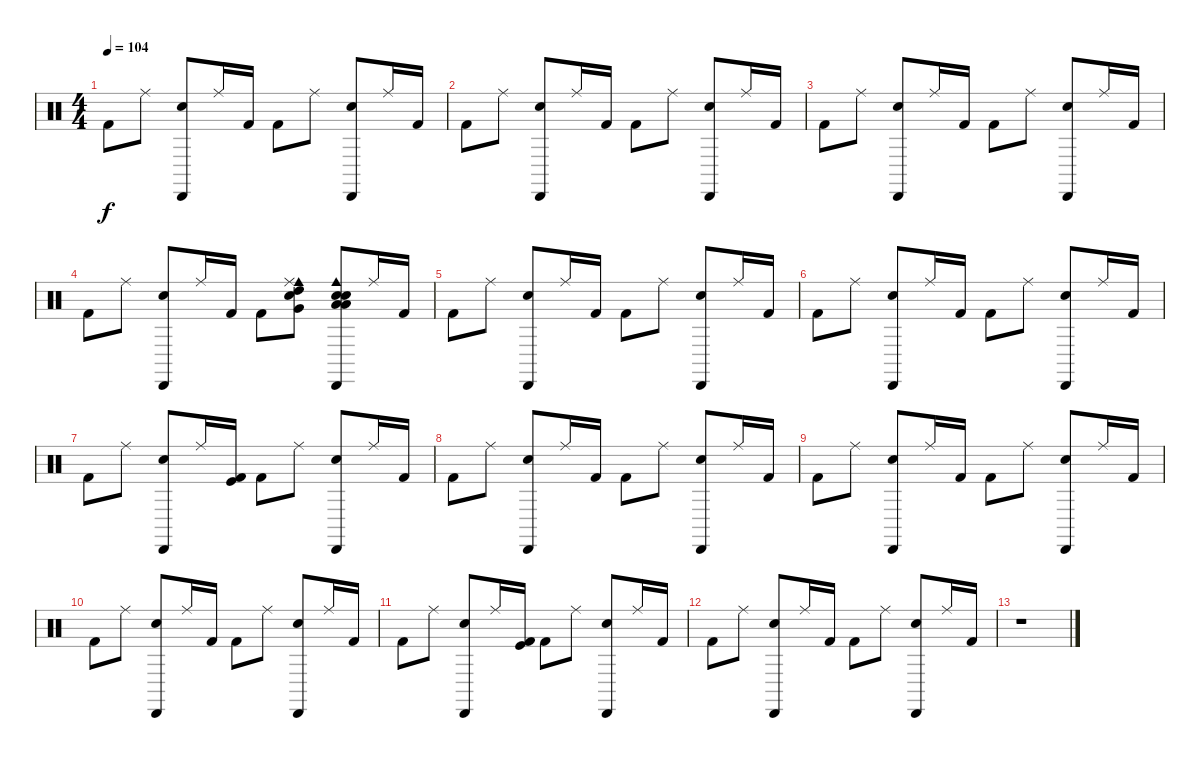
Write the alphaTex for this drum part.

\track "" {instrument percussion}
\staff {score}
\articulation defaults
\ts (4 4)
\tempo 104
\clef neutral
\ks c "Kick (hit) 2".8{dy f} "Ride (middle)".8
("Cabasa (hit)" "Hand Clap (hit)").8 "Ride (middle)".16 "Kick (hit) 2".16 "Kick (hit) 2".8 "Ride (middle)".8 ("Cabasa (hit)" "Hand Clap (hit)").8 "Ride (middle)".16 "Kick (hit) 2".16 |
"Kick (hit) 2".8 "Ride (middle)".8 ("Cabasa (hit)" "Hand Clap (hit)").8 "Ride (middle)".16 "Kick (hit) 2".16 "Kick (hit) 2".8 "Ride (middle)".8 ("Cabasa (hit)" "Hand Clap (hit)").8 "Ride (middle)".16 "Kick (hit) 2".16 |
"Kick (hit) 2".8 "Ride (middle)".8 ("Cabasa (hit)" "Hand Clap (hit)").8 "Ride (middle)".16 "Kick (hit) 2".16 "Kick (hit) 2".8 "Ride (middle)".8 ("Cabasa (hit)" "Hand Clap (hit)").8 "Ride (middle)".16 "Kick (hit) 2".16 |
"Kick (hit) 2".8 "Ride (middle)".8 ("Cabasa (hit)" "Hand Clap (hit)").8 "Ride (middle)".16 "Kick (hit) 2".16 "Kick (hit) 2".8 ("Very Low Tom (hit)" "Electric Snare (hit)" "Cowbell medium (hit)" "High Tom (hit)" "Ride (middle)").8 ("Snare (hit) 2" "Low Floor Tom (hit)" "Low Tom (hit)" "Cowbell medium (hit)" "Cabasa (hit)" "Hand Clap (hit)").8 "Ride (middle)".16 "Kick (hit) 2".16 |
"Kick (hit) 2".8 "Ride (middle)".8 ("Hand Clap (hit)" "Cabasa (hit)").8 "Ride (middle)".16 "Kick (hit) 2".16 "Kick (hit) 2".8 "Ride (middle)".8 ("Hand Clap (hit)" "Cabasa (hit)").8 "Ride (middle)".16 "Kick (hit) 2".16 |
"Kick (hit) 2".8 "Ride (middle)".8 ("Hand Clap (hit)" "Cabasa (hit)").8 "Ride (middle)".16 "Kick (hit) 2".16 "Kick (hit) 2".8 "Ride (middle)".8 ("Hand Clap (hit)" "Cabasa (hit)").8 "Ride (middle)".16 "Kick (hit) 2".16 |
"Kick (hit) 2".8 "Ride (middle)".8 ("Hand Clap (hit)" "Cabasa (hit)").8 "Ride (middle)".16 ("Kick (hit) 2" "Kick (hit)").16 "Kick (hit) 2".8 "Ride (middle)".8 ("Hand Clap (hit)" "Cabasa (hit)").8 "Ride (middle)".16 "Kick (hit) 2".16 |
"Kick (hit) 2".8 "Ride (middle)".8 ("Cabasa (hit)" "Hand Clap (hit)").8 "Ride (middle)".16 "Kick (hit) 2".16 "Kick (hit) 2".8 "Ride (middle)".8 ("Cabasa (hit)" "Hand Clap (hit)").8 "Ride (middle)".16 "Kick (hit) 2".16 |
"Kick (hit) 2".8 "Ride (middle)".8 ("Hand Clap (hit)" "Cabasa (hit)").8 "Ride (middle)".16 "Kick (hit) 2".16 "Kick (hit) 2".8 "Ride (middle)".8 ("Hand Clap (hit)" "Cabasa (hit)").8 "Ride (middle)".16 "Kick (hit) 2".16 |
"Kick (hit) 2".8 "Ride (middle)".8 ("Hand Clap (hit)" "Cabasa (hit)").8 "Ride (middle)".16 "Kick (hit) 2".16 "Kick (hit) 2".8 "Ride (middle)".8 ("Hand Clap (hit)" "Cabasa (hit)").8 "Ride (middle)".16 "Kick (hit) 2".16 |
"Kick (hit) 2".8 "Ride (middle)".8 ("Hand Clap (hit)" "Cabasa (hit)").8 "Ride (middle)".16 ("Kick (hit) 2" "Kick (hit)").16 "Kick (hit) 2".8 "Ride (middle)".8 ("Hand Clap (hit)" "Cabasa (hit)").8 "Ride (middle)".16 "Kick (hit) 2".16 |
"Kick (hit) 2".8 "Ride (middle)".8 ("Cabasa (hit)" "Hand Clap (hit)").8 "Ride (middle)".16 "Kick (hit) 2".16 "Kick (hit) 2".8 "Ride (middle)".8 ("Cabasa (hit)" "Hand Clap (hit)").8 "Ride (middle)".16 "Kick (hit) 2".16 |
r.1
